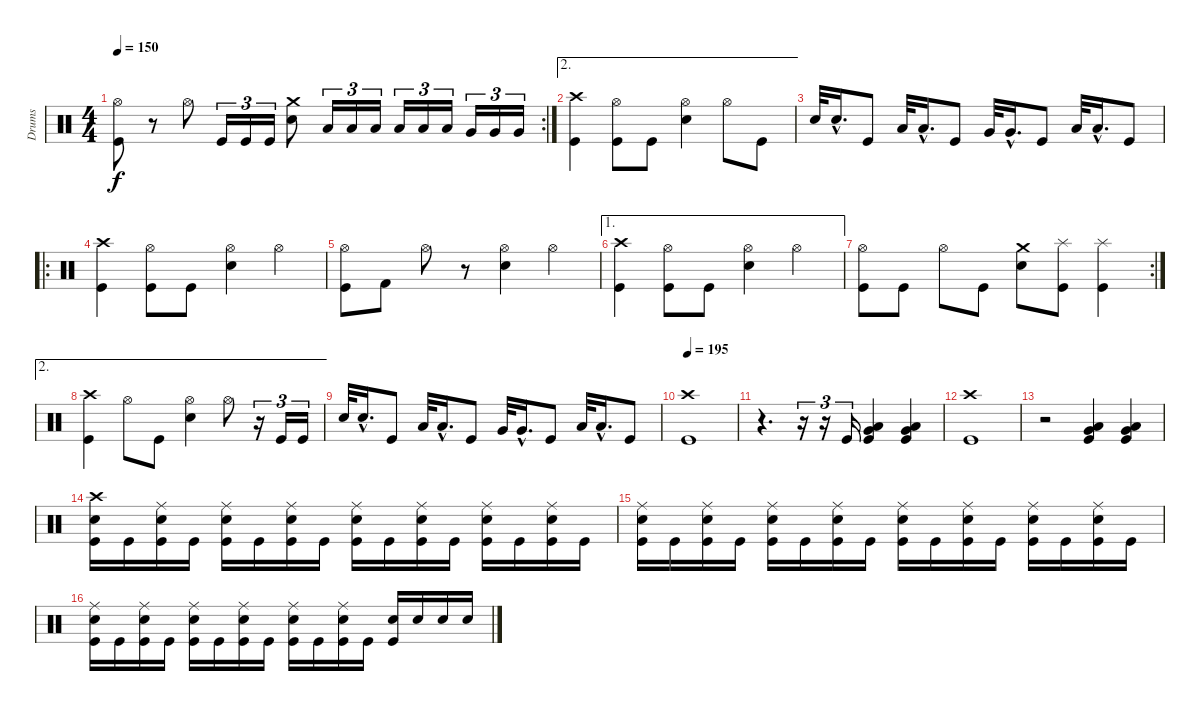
\track ("Drums" "Drums") {instrument percussion}
\staff {score}
\articulation defaults
\rc 2
\ts (4 4)
\tempo 150
\clef neutral
\ks c
("Hi-Hat (open)" "Kick (hit)").8{dy f} r.8 "Hi-Hat (open)".8 "Kick (hit)".16{tu (3 2)} "Kick (hit)".16{tu (3 2)} "Kick (hit)".16{tu (3 2)} ("Crash medium (hit)" "Electric Snare (hit)").8 "Low Tom (hit)".16{tu (3 2)} "Low Tom (hit)".16{tu (3 2)} "Low Tom (hit)".16{tu (3 2)} "Low Tom (hit)".16{tu (3 2)} "Low Tom (hit)".16{tu (3 2)} "Low Tom (hit)".16{tu (3 2)} "Very Low Tom (hit)".16{tu (3 2)} "Very Low Tom (hit)".16{tu (3 2)} "Very Low Tom (hit)".16{tu (3 2)} |
\ae 2
("Crash high (hit)" "Kick (hit)").4 ("Hi-Hat (open)" "Kick (hit)").8 "Kick (hit)".8 ("Hi-Hat (open)" "Electric Snare (hit)").4 "Hi-Hat (open)".8 "Kick (hit)".8 |
"Electric Snare (hit)".32 "Electric Snare (hit)"{hac}.16{d} "Kick (hit)".8 "Low Tom (hit)".32 "Low Tom (hit)"{hac}.16{d} "Kick (hit)".8 "Very Low Tom (hit)".32 "Very Low Tom (hit)"{hac}.16{d} "Kick (hit)".8 "Low Floor Tom (hit)".32 "Low Floor Tom (hit)"{hac}.16{d} "Kick (hit)".8 |
\ro
("Crash high (hit)" "Kick (hit)").4 ("Hi-Hat (open)" "Kick (hit)").8 "Kick (hit)".8 ("Hi-Hat (open)" "Electric Snare (hit)").4 "Hi-Hat (open)".4 |
("Hi-Hat (open)" "Kick (hit)").8 "Kick (hit) 2".8 "Hi-Hat (open)".8 r.8 ("Hi-Hat (open)" "Electric Snare (hit)").4 "Hi-Hat (open)".4 |
\ae 1
("Crash high (hit)" "Kick (hit)").4 ("Hi-Hat (open)" "Kick (hit)").8 "Kick (hit)".8 ("Hi-Hat (open)" "Electric Snare (hit)").4 "Hi-Hat (open)".4 |
\rc 2
("Hi-Hat (open)" "Kick (hit)").8 "Kick (hit)".8 "Hi-Hat (open)".8 "Kick (hit)".8 ("Crash medium (hit)" "Electric Snare (hit)").8 ("Splash (hit)" "Kick (hit)").8 ("Splash (hit)" "Kick (hit)").4 |
\ae 2
("Crash high (hit)" "Kick (hit)").4 "Hi-Hat (open)".8 "Kick (hit)".8 ("Hi-Hat (open)" "Electric Snare (hit)").4 "Hi-Hat (open)".8 r.16{tu (3 2)} "Kick (hit)".16{tu (3 2)} "Kick (hit)".16{tu (3 2)} |
"Electric Snare (hit)".32 "Electric Snare (hit)"{hac}.16{d} "Kick (hit)".8 "Low Tom (hit)".32 "Low Tom (hit)"{hac}.16{d} "Kick (hit)".8 "Very Low Tom (hit)".32 "Very Low Tom (hit)"{hac}.16{d} "Kick (hit)".8 "Low Floor Tom (hit)".32 "Low Floor Tom (hit)"{hac}.16{d} "Kick (hit)".8 |
\tempo 195
("Crash high (hit)" "Kick (hit)").1 |
r.4{d} r.16{tu (3 2)} r.16{tu (3 2)} "Kick (hit)".16{tu (3 2)} ("Low Tom (hit)" "Very Low Tom (hit)" "Kick (hit)").4 ("Low Tom (hit)" "Very Low Tom (hit)" "Kick (hit)").4 |
("Crash high (hit)" "Kick (hit)").1 |
r.2 ("Low Tom (hit)" "Very Low Tom (hit)" "Kick (hit)").4 ("Low Tom (hit)" "Very Low Tom (hit)" "Kick (hit)").4 |
("Crash high (hit)" "Electric Snare (hit)" "Kick (hit)").16 "Kick (hit)".16 ("Ride (middle)" "Electric Snare (hit)" "Kick (hit)").16 "Kick (hit)".16 ("Ride (middle)" "Electric Snare (hit)" "Kick (hit)").16 "Kick (hit)".16 ("Ride (middle)" "Electric Snare (hit)" "Kick (hit)").16 "Kick (hit)".16 ("Ride (middle)" "Electric Snare (hit)" "Kick (hit)").16 "Kick (hit)".16 ("Ride (middle)" "Electric Snare (hit)" "Kick (hit)").16 "Kick (hit)".16 ("Ride (middle)" "Electric Snare (hit)" "Kick (hit)").16 "Kick (hit)".16 ("Ride (middle)" "Electric Snare (hit)" "Kick (hit)").16 "Kick (hit)".16 |
("Ride (middle)" "Electric Snare (hit)" "Kick (hit)").16 "Kick (hit)".16 ("Ride (middle)" "Electric Snare (hit)" "Kick (hit)").16 "Kick (hit)".16 ("Ride (middle)" "Electric Snare (hit)" "Kick (hit)").16 "Kick (hit)".16 ("Ride (middle)" "Electric Snare (hit)" "Kick (hit)").16 "Kick (hit)".16 ("Ride (middle)" "Electric Snare (hit)" "Kick (hit)").16 "Kick (hit)".16 ("Ride (middle)" "Electric Snare (hit)" "Kick (hit)").16 "Kick (hit)".16 ("Ride (middle)" "Electric Snare (hit)" "Kick (hit)").16 "Kick (hit)".16 ("Ride (middle)" "Electric Snare (hit)" "Kick (hit)").16 "Kick (hit)".16 |
("Ride (middle)" "Electric Snare (hit)" "Kick (hit)").16 "Kick (hit)".16 ("Ride (middle)" "Electric Snare (hit)" "Kick (hit)").16 "Kick (hit)".16 ("Ride (middle)" "Electric Snare (hit)" "Kick (hit)").16 "Kick (hit)".16 ("Ride (middle)" "Electric Snare (hit)" "Kick (hit)").16 "Kick (hit)".16 ("Ride (middle)" "Electric Snare (hit)" "Kick (hit)").16 "Kick (hit)".16 ("Ride (middle)" "Electric Snare (hit)" "Kick (hit)").16 "Kick (hit)".16 ("Electric Snare (hit)" "Kick (hit)").16 "Electric Snare (hit)".16 "Electric Snare (hit)".16 "Electric Snare (hit)".16
